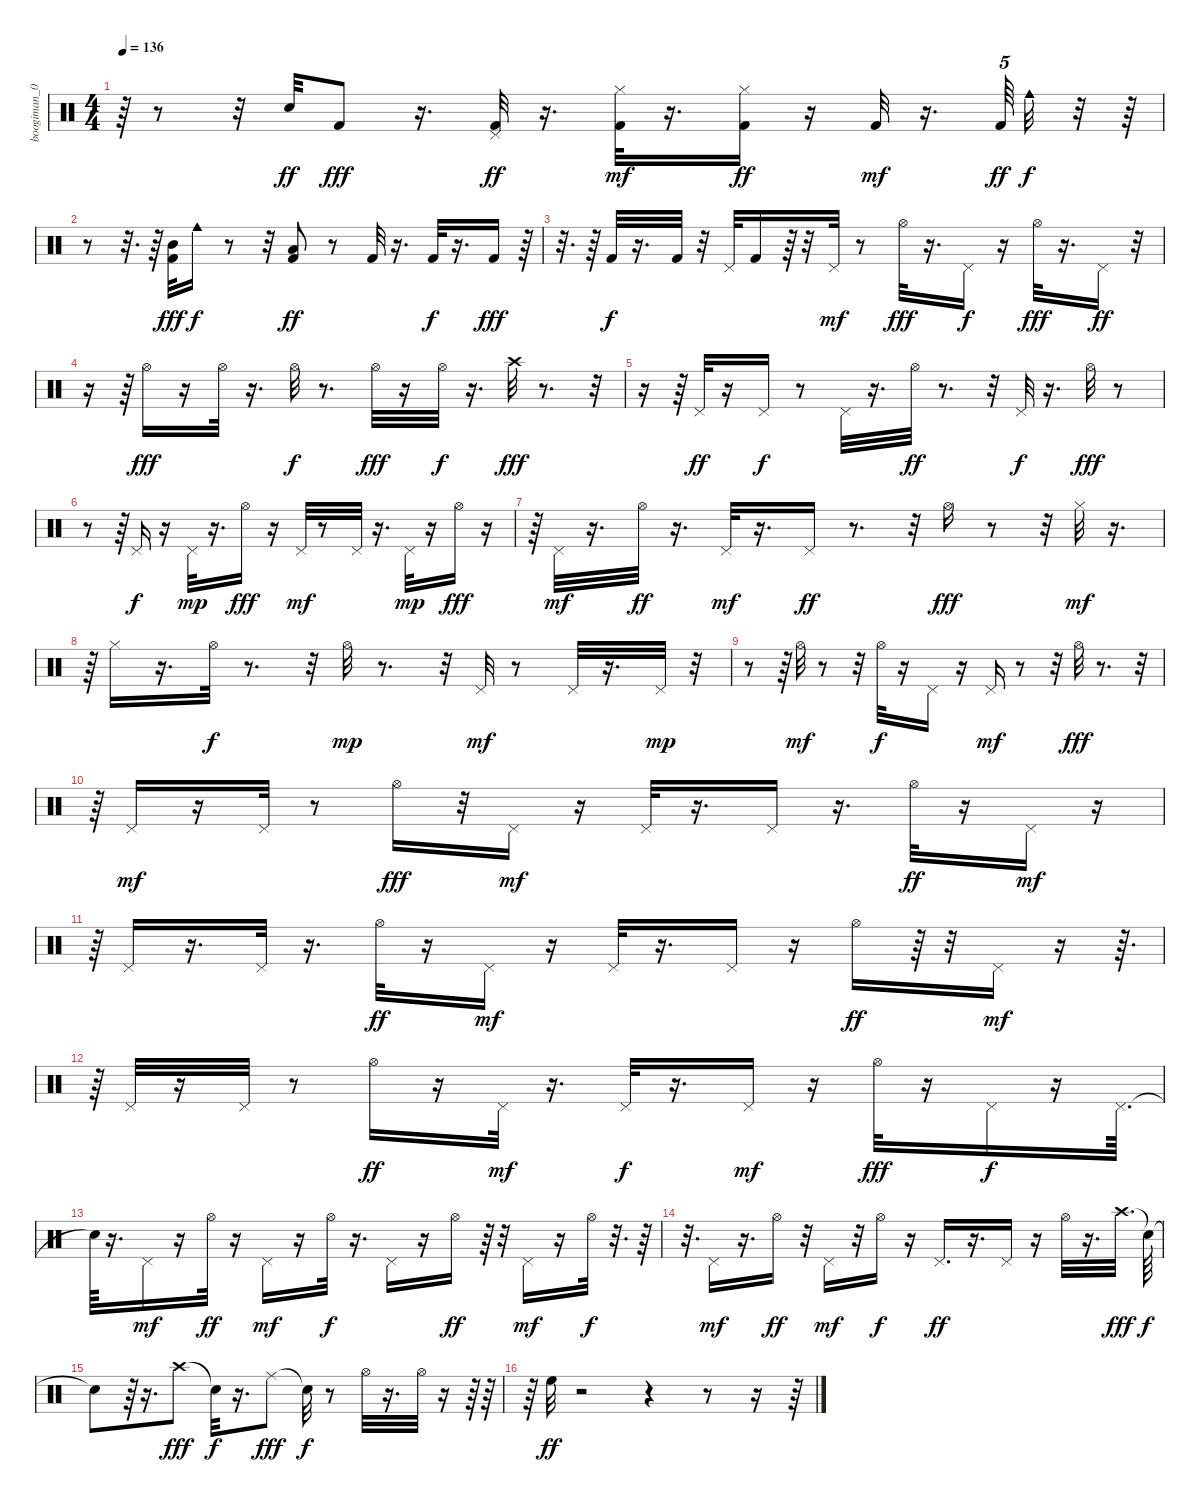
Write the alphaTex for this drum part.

\track ("boogiman_007@yahoo.com" "boogiman_0") {instrument percussion}
\staff {score}
\articulation defaults
\ts (4 4)
\tempo 136
\clef neutral
\ks c
r.64{dy f} r.8 r.32 "Electric Snare (hit)".32{dy ff} "Kick (hit) 2".8{dy fff} r.16{d} ("Pedal Hi-Hat (hit)" "Kick (hit) 2").32{dy ff} r.16{d} ("Hi-Hat (closed)" "Kick (hit) 2").32{dy mf} r.16{d} ("Hi-Hat (closed)" "Kick (hit) 2").16{dy ff} r.16 "Kick (hit) 2".32{dy mf} r.16{d} "Kick (hit) 2".64{tu (5 4) dy ff} "Cowbell medium (hit)".32{dy f} r.32 r.64 |
r.8 r.32{d} r.64 ("Mid Tom (hit)" "Kick (hit) 2").32{dy fff} "Cowbell medium (hit)".16{dy f} r.8 r.32 ("Kick (hit) 2" "Low Tom (hit)").8{dy ff} r.8 "Kick (hit) 2".32 r.16{d} "Kick (hit) 2".32{dy f} r.16{d} "Kick (hit) 2".16{dy fff} r.64 |
r.32{d} r.64 "Kick (hit) 2".32{dy f} r.16{d} "Kick (hit) 2".32 r.32 "Pedal Hi-Hat (hit)".32 "Kick (hit) 2".16 r.64 r.32 "Pedal Hi-Hat (hit)".32{dy mf} r.8 "Hi-Hat (open)".32{dy fff} r.16{d} "Pedal Hi-Hat (hit)".16{dy f} r.16 "Hi-Hat (open)".32{dy fff} r.16{d} "Pedal Hi-Hat (hit)".16{dy ff} r.32 |
r.16 r.64 "Hi-Hat (open)".16{dy fff} r.16 "Hi-Hat (open)".32 r.16{d} "Hi-Hat (open)".32{dy f} r.8{d} "Hi-Hat (open)".32{dy fff} r.16 "Hi-Hat (open)".32{dy f} r.16{d} "Crash high (hit)".32{dy fff} r.8{d} r.32 |
r.16 r.64 "Pedal Hi-Hat (hit)".32{dy ff} r.16 "Pedal Hi-Hat (hit)".16{dy f} r.8 "Pedal Hi-Hat (hit)".32 r.16{d} "Hi-Hat (open)".32{dy ff} r.8{d} r.32 "Pedal Hi-Hat (hit)".32{dy f} r.16{d} "Hi-Hat (open)".32{dy fff} r.8 |
r.8 r.64 "Pedal Hi-Hat (hit)".16{dy f} r.16 "Pedal Hi-Hat (hit)".32{dy mp} r.16{d} "Hi-Hat (open)".16{dy fff} r.16 "Pedal Hi-Hat (hit)".32{dy mf} r.8 "Pedal Hi-Hat (hit)".32 r.16{d} "Pedal Hi-Hat (hit)".32{dy mp} r.16 "Hi-Hat (open)".16{dy fff} r.16 |
r.64 "Pedal Hi-Hat (hit)".32{dy mf} r.16{d} "Hi-Hat (open)".32{dy ff} r.16{d} "Pedal Hi-Hat (hit)".32{dy mf} r.16{d} "Pedal Hi-Hat (hit)".16{dy ff} r.8{d} r.32 "Hi-Hat (open)".16{dy fff} r.8 r.32 "Hi-Hat (closed)".32{dy mf} r.16{d} |
r.64 "Hi-Hat (closed)".16 r.16{d} "Hi-Hat (open)".32{dy f} r.8{d} r.32 "Hi-Hat (open)".32{dy mp} r.8{d} r.32 "Pedal Hi-Hat (hit)".32{dy mf} r.8 "Pedal Hi-Hat (hit)".32 r.16{d} "Pedal Hi-Hat (hit)".32{dy mp} r.32 |
r.8 r.64 "Hi-Hat (open)".32{dy mf} r.8 r.32 "Hi-Hat (open)".32{dy f} r.16 "Pedal Hi-Hat (hit)".16 r.16 "Pedal Hi-Hat (hit)".16{dy mf} r.8 r.32 "Hi-Hat (open)".32{dy fff} r.8{d} r.32 |
r.64 "Pedal Hi-Hat (hit)".16{dy mf} r.16 "Pedal Hi-Hat (hit)".32 r.8 "Hi-Hat (open)".16{dy fff} r.32 "Pedal Hi-Hat (hit)".16{dy mf} r.16 "Pedal Hi-Hat (hit)".32 r.16{d} "Pedal Hi-Hat (hit)".16 r.16{d} "Hi-Hat (open)".32{dy ff} r.16 "Pedal Hi-Hat (hit)".16{dy mf} r.16 |
r.64 "Pedal Hi-Hat (hit)".16 r.16{d} "Pedal Hi-Hat (hit)".32 r.16{d} "Hi-Hat (open)".32{dy ff} r.16 "Pedal Hi-Hat (hit)".16{dy mf} r.16 "Pedal Hi-Hat (hit)".32 r.16{d} "Pedal Hi-Hat (hit)".16 r.16 "Hi-Hat (open)".16{dy ff} r.64 r.32 "Pedal Hi-Hat (hit)".16{dy mf} r.16 r.64{d} |
r.64 "Pedal Hi-Hat (hit)".32 r.16 "Pedal Hi-Hat (hit)".32 r.8 "Hi-Hat (open)".16{dy ff} r.16 "Pedal Hi-Hat (hit)".32{dy mf} r.16{d} "Pedal Hi-Hat (hit)".32{dy f} r.16{d} "Pedal Hi-Hat (hit)".16{dy mf} r.16 "Hi-Hat (open)".32{dy fff} r.16 "Pedal Hi-Hat (hit)".16{dy f} r.16 "Pedal Hi-Hat (hit)".64{d} |
"Snare (hit)"{t}.64 r.16{d} "Pedal Hi-Hat (hit)".16{dy mf} r.16 "Hi-Hat (open)".32{dy ff} r.16 "Pedal Hi-Hat (hit)".16{dy mf} r.16 "Hi-Hat (open)".32{dy f} r.16{d} "Pedal Hi-Hat (hit)".16 r.16 "Hi-Hat (open)".16{dy ff} r.64 r.32 "Pedal Hi-Hat (hit)".16{dy mf} r.16 "Hi-Hat (open)".32{dy f} r.32{d} r.64 |
r.32{d} "Pedal Hi-Hat (hit)".16{dy mf} r.16{d} "Hi-Hat (open)".16{dy ff} r.32 "Pedal Hi-Hat (hit)".16{dy mf} r.32 "Hi-Hat (open)".16{dy f} r.16 "Pedal Hi-Hat (hit)".16{d dy ff} r.16{d} "Pedal Hi-Hat (hit)".16 r.16 "Hi-Hat (open)".32 r.16{d} "Crash high (hit)".32{d dy fff} "Snare (hit)"{t}.64{dy f} |
"Snare (hit)"{t}.8 r.64 r.16{d} "Crash high (hit)".8{dy fff} "Snare (hit)"{t}.32{dy f} r.16{d} "Ride (middle)".8{dy fff} "Snare (hit)"{t}.32{dy f} r.8 "Hi-Hat (open)".32 r.16{d} "Hi-Hat (open)".32 r.16 r.64 r.64 |
r.64 "High Floor Tom (hit)".32{dy ff} r.2 r.4 r.8 r.16 r.64
